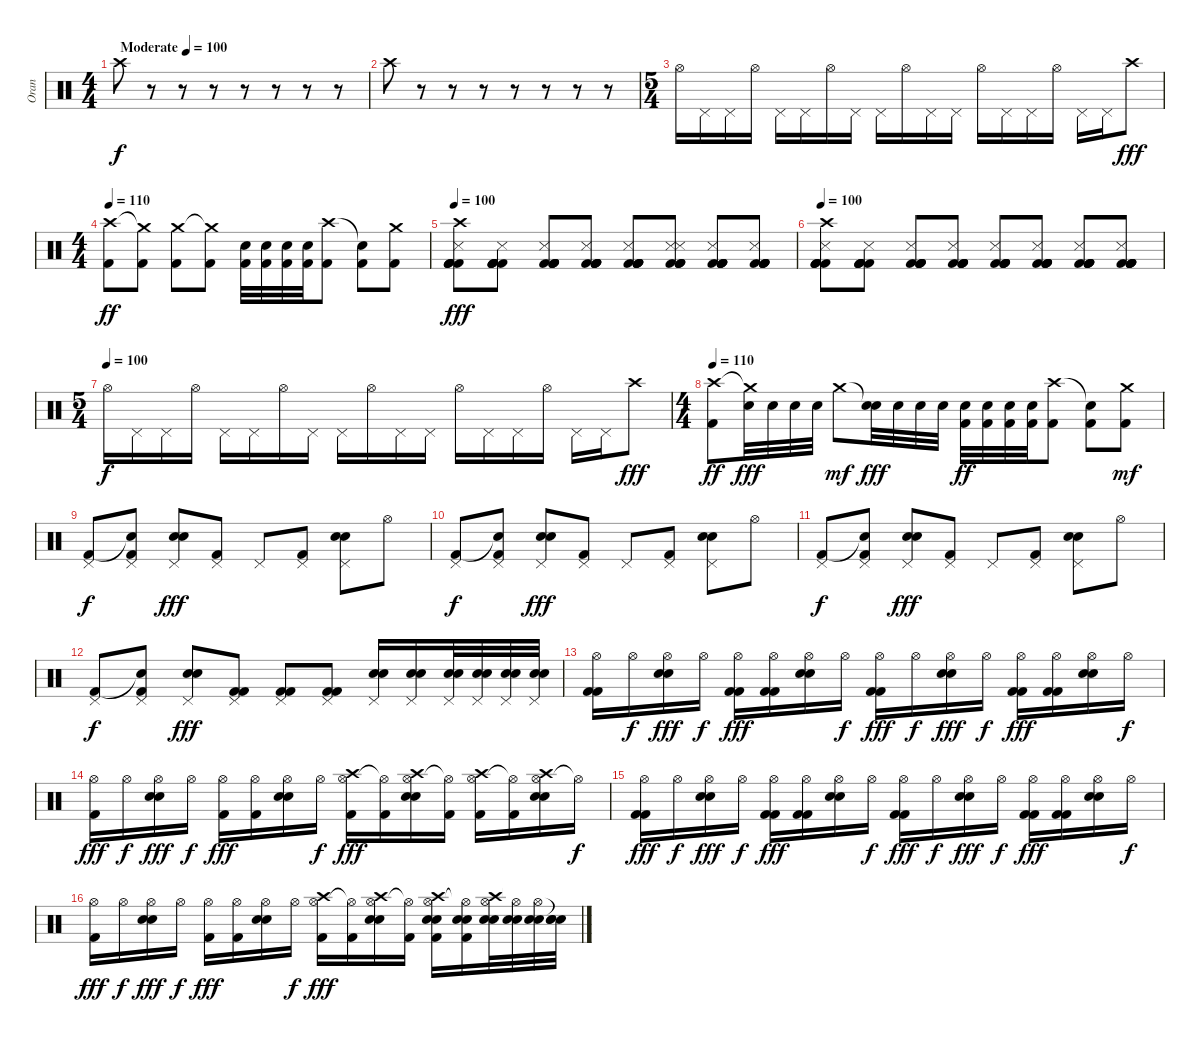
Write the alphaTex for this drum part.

\track ("Oran" "Oran") {instrument percussion}
\staff {score}
\articulation defaults
\ts (4 4)
\tempo (100 "Moderate")
\clef neutral
\ks c "Crash high (hit)".8{dy f}
r.8 r.8 r.8 r.8 r.8 r.8 r.8 |
"Crash high (hit)".8 r.8 r.8 r.8 r.8 r.8 r.8 r.8 |
\ts (5 4)
"Hi-Hat (open)".16 "Pedal Hi-Hat (hit)".16 "Pedal Hi-Hat (hit)".16 "Hi-Hat (open)".16 "Pedal Hi-Hat (hit)".16 "Pedal Hi-Hat (hit)".16 "Hi-Hat (open)".16 "Pedal Hi-Hat (hit)".16 "Pedal Hi-Hat (hit)".16 "Hi-Hat (open)".16 "Pedal Hi-Hat (hit)".16 "Pedal Hi-Hat (hit)".16 "Hi-Hat (open)".16 "Pedal Hi-Hat (hit)".16 "Pedal Hi-Hat (hit)".16 "Hi-Hat (open)".16 "Pedal Hi-Hat (hit)".16 "Pedal Hi-Hat (hit)".16 "Crash high (hit)".8{dy fff} |
\ts (4 4)
\tempo 110
("Crash high (hit)" "Kick (hit) 2").8{dy ff} ("Crash medium (hit)"{t} "Kick (hit) 2").8 ("Crash medium (hit)" "Kick (hit) 2").8 ("Crash medium (hit)"{t} "Kick (hit) 2").8 ("Snare (hit) 2" "Kick (hit) 2").32 ("Snare (hit) 2" "Kick (hit) 2").32 ("Snare (hit) 2" "Kick (hit) 2").32 ("Snare (hit) 2" "Kick (hit) 2").32 ("Crash high (hit)" "Kick (hit) 2").8 ("Snare (hit)"{t} "Kick (hit) 2").8 ("Crash medium (hit)" "Kick (hit) 2").8 |
\tempo 100
("Kick (hit) 2" "Kick (hit) 2" "Crash high (hit)" "Snare (side stick) 3" "Kick (hit) 2" "Kick (hit) 2").8{dy fff} ("Kick (hit) 2" "Kick (hit) 2" "Kick (hit) 2" "Snare (side stick) 3" "Kick (hit) 2" "Kick (hit) 2").8 ("Kick (hit) 2" "Kick (hit) 2" "Kick (hit) 2" "Snare (side stick) 3" "Kick (hit) 2" "Kick (hit) 2").8 ("Kick (hit) 2" "Kick (hit) 2" "Kick (hit) 2" "Snare (side stick) 3" "Kick (hit) 2" "Kick (hit) 2").8 ("Kick (hit) 2" "Kick (hit) 2" "Kick (hit) 2" "Snare (side stick) 3" "Kick (hit) 2" "Kick (hit) 2").8 ("Kick (hit) 2" "Kick (hit) 2" "Kick (hit) 2" "Snare (side stick) 3" "Snare (side stick) 3" "Kick (hit) 2").8 ("Kick (hit) 2" "Kick (hit) 2" "Kick (hit) 2" "Snare (side stick) 3" "Kick (hit) 2" "Kick (hit) 2").8 ("Kick (hit) 2" "Kick (hit) 2" "Kick (hit) 2" "Snare (side stick) 3" "Kick (hit) 2" "Kick (hit) 2").8 |
\tempo 100
("Kick (hit) 2" "Kick (hit) 2" "Kick (hit) 2" "Crash high (hit)" "Snare (side stick) 3" "Kick (hit) 2").8 ("Kick (hit) 2" "Kick (hit) 2" "Kick (hit) 2" "Snare (side stick) 3" "Kick (hit) 2" "Kick (hit) 2").8 ("Kick (hit) 2" "Kick (hit) 2" "Kick (hit) 2" "Snare (side stick) 3" "Kick (hit) 2" "Kick (hit) 2").8 ("Kick (hit) 2" "Kick (hit) 2" "Kick (hit) 2" "Snare (side stick) 3" "Kick (hit) 2" "Kick (hit) 2").8 ("Kick (hit) 2" "Kick (hit) 2" "Kick (hit) 2" "Snare (side stick) 3" "Kick (hit) 2" "Kick (hit) 2").8 ("Kick (hit) 2" "Kick (hit) 2" "Kick (hit) 2" "Snare (side stick) 3" "Kick (hit) 2" "Kick (hit) 2").8 ("Kick (hit) 2" "Kick (hit) 2" "Kick (hit) 2" "Snare (side stick) 3" "Kick (hit) 2" "Kick (hit) 2").8 ("Kick (hit) 2" "Kick (hit) 2" "Kick (hit) 2" "Snare (side stick) 3" "Kick (hit) 2" "Kick (hit) 2").8 |
\ts (5 4)
\tempo (100)
"Hi-Hat (open)".16{dy f} "Pedal Hi-Hat (hit)".16 "Pedal Hi-Hat (hit)".16 "Hi-Hat (open)".16 "Pedal Hi-Hat (hit)".16 "Pedal Hi-Hat (hit)".16 "Hi-Hat (open)".16 "Pedal Hi-Hat (hit)".16 "Pedal Hi-Hat (hit)".16 "Hi-Hat (open)".16 "Pedal Hi-Hat (hit)".16 "Pedal Hi-Hat (hit)".16 "Hi-Hat (open)".16 "Pedal Hi-Hat (hit)".16 "Pedal Hi-Hat (hit)".16 "Hi-Hat (open)".16 "Pedal Hi-Hat (hit)".16 "Pedal Hi-Hat (hit)".16 "Crash high (hit)".8{dy fff} |
\ts (4 4)
\tempo 110
("Crash high (hit)" "Kick (hit) 2").8{dy ff} ("Crash medium (hit)"{t} "Snare (hit) 2").32{dy fff} "Snare (hit) 2".32 "Snare (hit) 2".32 "Snare (hit) 2".32 "Crash medium (hit)".8{dy mf} ("Snare (hit) 2"{t} "Snare (hit) 2").32{dy fff} "Snare (hit) 2".32 "Snare (hit) 2".32 "Snare (hit) 2".32 ("Snare (hit) 2" "Kick (hit) 2").32{dy ff} ("Snare (hit) 2" "Kick (hit) 2").32 ("Snare (hit) 2" "Kick (hit) 2").32 ("Snare (hit) 2" "Kick (hit) 2").32 ("Crash high (hit)" "Kick (hit) 2").8 ("Snare (hit)"{t} "Kick (hit) 2").8 ("Crash medium (hit)" "Kick (hit) 2").8{dy mf} |
("Pedal Hi-Hat (hit)" "Kick (hit) 2").8{dy f} ("Pedal Hi-Hat (hit)" "Snare (hit)"{t} "Kick (hit) 2").8 ("Pedal Hi-Hat (hit)" "Electric Snare (hit)" "Snare (hit) 2").8{dy fff} ("Pedal Hi-Hat (hit)" "Kick (hit) 2").8 "Pedal Hi-Hat (hit)".8 ("Pedal Hi-Hat (hit)" "Kick (hit) 2").8 ("Pedal Hi-Hat (hit)" "Electric Snare (hit)" "Snare (hit) 2").8 "Hi-Hat (open)".8 |
("Pedal Hi-Hat (hit)" "Kick (hit) 2").8{dy f} ("Pedal Hi-Hat (hit)" "Snare (hit)"{t} "Kick (hit) 2").8 ("Pedal Hi-Hat (hit)" "Electric Snare (hit)" "Snare (hit) 2").8{dy fff} ("Pedal Hi-Hat (hit)" "Kick (hit) 2").8 "Pedal Hi-Hat (hit)".8 ("Pedal Hi-Hat (hit)" "Kick (hit) 2").8 ("Pedal Hi-Hat (hit)" "Electric Snare (hit)" "Snare (hit) 2").8 "Hi-Hat (open)".8 |
("Pedal Hi-Hat (hit)" "Kick (hit) 2").8{dy f} ("Pedal Hi-Hat (hit)" "Snare (hit)"{t} "Kick (hit) 2").8 ("Pedal Hi-Hat (hit)" "Electric Snare (hit)" "Snare (hit) 2").8{dy fff} ("Pedal Hi-Hat (hit)" "Kick (hit) 2").8 "Pedal Hi-Hat (hit)".8 ("Pedal Hi-Hat (hit)" "Kick (hit) 2").8 ("Pedal Hi-Hat (hit)" "Electric Snare (hit)" "Snare (hit) 2").8 "Hi-Hat (open)".8 |
("Pedal Hi-Hat (hit)" "Kick (hit) 2").8{dy f} ("Pedal Hi-Hat (hit)" "Snare (hit)"{t} "Kick (hit) 2").8 ("Pedal Hi-Hat (hit)" "Snare (hit) 2" "Electric Snare (hit)").8{dy fff} ("Pedal Hi-Hat (hit)" "Kick (hit) 2" "Kick (hit) 2").8 ("Pedal Hi-Hat (hit)" "Kick (hit) 2" "Kick (hit) 2").8 ("Pedal Hi-Hat (hit)" "Kick (hit) 2" "Kick (hit) 2").8 ("Pedal Hi-Hat (hit)" "Electric Snare (hit)" "Snare (hit) 2").16 ("Pedal Hi-Hat (hit)" "Electric Snare (hit)" "Snare (hit) 2").16 ("Pedal Hi-Hat (hit)" "Snare (hit) 2" "Electric Snare (hit)").32 ("Pedal Hi-Hat (hit)" "Snare (hit) 2" "Electric Snare (hit)").32 ("Pedal Hi-Hat (hit)" "Snare (hit) 2" "Electric Snare (hit)").32 ("Pedal Hi-Hat (hit)" "Snare (hit) 2" "Electric Snare (hit)").32 |
("Hi-Hat (open)" "Kick (hit) 2" "Kick (hit) 2").16 "Hi-Hat (open)".16{dy f} ("Hi-Hat (open)" "Snare (hit) 2" "Electric Snare (hit)").16{dy fff} "Hi-Hat (open)".16{dy f} ("Hi-Hat (open)" "Kick (hit) 2" "Kick (hit) 2").16{dy fff} ("Hi-Hat (open)" "Kick (hit) 2" "Kick (hit) 2").16 ("Hi-Hat (open)" "Snare (hit) 2" "Electric Snare (hit)").16 "Hi-Hat (open)".16{dy f} ("Hi-Hat (open)" "Kick (hit) 2" "Kick (hit) 2").16{dy fff} "Hi-Hat (open)".16{dy f} ("Hi-Hat (open)" "Snare (hit) 2" "Electric Snare (hit)").16{dy fff} "Hi-Hat (open)".16{dy f} ("Hi-Hat (open)" "Kick (hit) 2" "Kick (hit) 2").16{dy fff} ("Hi-Hat (open)" "Kick (hit) 2" "Kick (hit) 2").16 ("Hi-Hat (open)" "Snare (hit) 2" "Electric Snare (hit)").16 "Hi-Hat (open)".16{dy f} |
("Hi-Hat (open)" "Kick (hit) 2").16{dy fff} "Hi-Hat (open)".16{dy f} ("Hi-Hat (open)" "Snare (hit) 2" "Electric Snare (hit)").16{dy fff} "Hi-Hat (open)".16{dy f} ("Hi-Hat (open)" "Kick (hit) 2").16{dy fff} ("Hi-Hat (open)" "Kick (hit) 2").16 ("Hi-Hat (open)" "Snare (hit) 2" "Electric Snare (hit)").16 "Hi-Hat (open)".16{dy f} ("Hi-Hat (open)" "Crash high (hit)" "Kick (hit) 2").16{dy fff} ("Hi-Hat (open)"{t} "Kick (hit) 2").16 ("Hi-Hat (open)" "Snare (hit) 2" "Electric Snare (hit)" "Crash high (hit)").16 ("Hi-Hat (open)"{t} "Kick (hit) 2").16 ("Hi-Hat (open)" "Crash high (hit)" "Kick (hit) 2").16 ("Hi-Hat (open)"{t} "Kick (hit) 2").16 ("Hi-Hat (open)" "Electric Snare (hit)" "Snare (hit) 2" "Crash high (hit)").16 "Hi-Hat (open)"{t}.16{dy f} |
("Hi-Hat (open)" "Kick (hit) 2" "Kick (hit) 2").16{dy fff} "Hi-Hat (open)".16{dy f} ("Hi-Hat (open)" "Snare (hit) 2" "Electric Snare (hit)").16{dy fff} "Hi-Hat (open)".16{dy f} ("Hi-Hat (open)" "Kick (hit) 2" "Kick (hit) 2").16{dy fff} ("Hi-Hat (open)" "Kick (hit) 2" "Kick (hit) 2").16 ("Hi-Hat (open)" "Snare (hit) 2" "Electric Snare (hit)").16 "Hi-Hat (open)".16{dy f} ("Hi-Hat (open)" "Kick (hit) 2" "Kick (hit) 2").16{dy fff} "Hi-Hat (open)".16{dy f} ("Hi-Hat (open)" "Snare (hit) 2" "Electric Snare (hit)").16{dy fff} "Hi-Hat (open)".16{dy f} ("Hi-Hat (open)" "Kick (hit) 2" "Kick (hit) 2").16{dy fff} ("Hi-Hat (open)" "Kick (hit) 2" "Kick (hit) 2").16 ("Hi-Hat (open)" "Snare (hit) 2" "Electric Snare (hit)").16 "Hi-Hat (open)".16{dy f} |
("Hi-Hat (open)" "Kick (hit) 2").16{dy fff} "Hi-Hat (open)".16{dy f} ("Hi-Hat (open)" "Snare (hit) 2" "Electric Snare (hit)").16{dy fff} "Hi-Hat (open)".16{dy f} ("Hi-Hat (open)" "Kick (hit) 2").16{dy fff} ("Hi-Hat (open)" "Kick (hit) 2").16 ("Hi-Hat (open)" "Snare (hit) 2" "Electric Snare (hit)").16 "Hi-Hat (open)".16{dy f} ("Hi-Hat (open)" "Crash high (hit)" "Kick (hit) 2").16{dy fff} ("Hi-Hat (open)"{t} "Kick (hit) 2").16 ("Hi-Hat (open)" "Snare (hit) 2" "Electric Snare (hit)" "Crash high (hit)").16 ("Hi-Hat (open)"{t} "Kick (hit) 2").16 ("Hi-Hat (open)" "Crash high (hit)" "Electric Snare (hit)" "Kick (hit) 2" "Snare (hit) 2").16 ("Hi-Hat (open)"{t} "Snare (hit) 2" "Electric Snare (hit)" "Kick (hit) 2").16 ("Hi-Hat (open)" "Electric Snare (hit)" "Snare (hit) 2" "Crash high (hit)").32 ("Hi-Hat (open)"{t} "Snare (hit) 2" "Electric Snare (hit)").32 ("Hi-Hat (open)" "Snare (hit) 2" "Electric Snare (hit)").32 ("Snare (hit)"{t} "Snare (hit) 2" "Electric Snare (hit)").32
